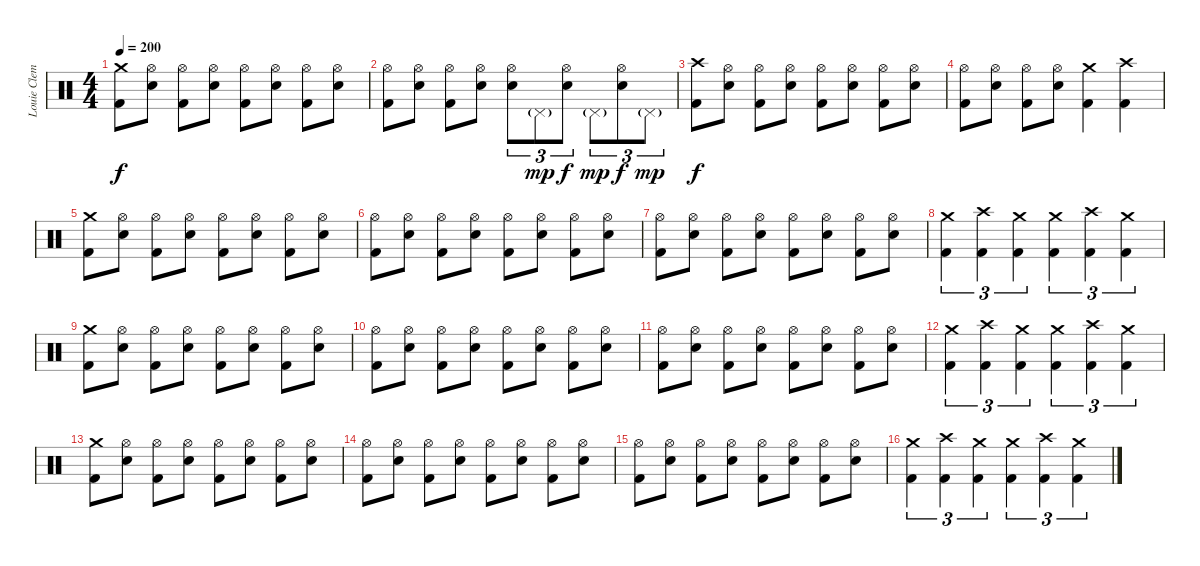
\track ("Louie Clemente" "Louie Clem") {instrument percussion}
\staff {score}
\articulation defaults
\ts (4 4)
\tempo 200
\clef neutral
\ks c
("Crash medium (hit)" "Kick (hit) 2").8{dy f} ("Hi-Hat (open)" "Snare (hit) 2").8 ("Hi-Hat (open)" "Kick (hit) 2").8 ("Hi-Hat (open)" "Snare (hit) 2").8 ("Hi-Hat (open)" "Kick (hit) 2").8 ("Hi-Hat (open)" "Snare (hit) 2").8 ("Hi-Hat (open)" "Kick (hit) 2").8 ("Hi-Hat (open)" "Snare (hit) 2").8 |
("Hi-Hat (open)" "Kick (hit) 2").8 ("Hi-Hat (open)" "Snare (hit) 2").8 ("Hi-Hat (open)" "Kick (hit) 2").8 ("Hi-Hat (open)" "Snare (hit) 2").8 ("Hi-Hat (open)" "Snare (hit) 2").8{tu (3 2)} "Pedal Hi-Hat (hit)"{g}.8{tu (3 2) dy mp} ("Hi-Hat (open)" "Snare (hit) 2").8{tu (3 2) dy f} "Pedal Hi-Hat (hit)"{g}.8{tu (3 2) dy mp} ("Hi-Hat (open)" "Snare (hit) 2").8{tu (3 2) dy f} "Pedal Hi-Hat (hit)"{g}.8{tu (3 2) dy mp} |
("Crash high (hit)" "Kick (hit) 2").8{dy f} ("Hi-Hat (open)" "Snare (hit) 2").8 ("Hi-Hat (open)" "Kick (hit) 2").8 ("Hi-Hat (open)" "Snare (hit) 2").8 ("Hi-Hat (open)" "Kick (hit) 2").8 ("Hi-Hat (open)" "Snare (hit) 2").8 ("Hi-Hat (open)" "Kick (hit) 2").8 ("Hi-Hat (open)" "Snare (hit) 2").8 |
("Hi-Hat (open)" "Kick (hit) 2").8 ("Hi-Hat (open)" "Snare (hit) 2").8 ("Hi-Hat (open)" "Kick (hit) 2").8 ("Hi-Hat (open)" "Snare (hit) 2").8 ("Crash medium (hit)" "Kick (hit) 2").4 ("Crash high (hit)" "Kick (hit) 2").4 |
("Crash medium (hit)" "Kick (hit) 2").8 ("Hi-Hat (open)" "Snare (hit) 2").8 ("Hi-Hat (open)" "Kick (hit) 2").8 ("Hi-Hat (open)" "Snare (hit) 2").8 ("Hi-Hat (open)" "Kick (hit) 2").8 ("Hi-Hat (open)" "Snare (hit) 2").8 ("Hi-Hat (open)" "Kick (hit) 2").8 ("Hi-Hat (open)" "Snare (hit) 2").8 |
("Hi-Hat (open)" "Kick (hit) 2").8 ("Hi-Hat (open)" "Snare (hit) 2").8 ("Hi-Hat (open)" "Kick (hit) 2").8 ("Hi-Hat (open)" "Snare (hit) 2").8 ("Hi-Hat (open)" "Kick (hit) 2").8 ("Hi-Hat (open)" "Snare (hit) 2").8 ("Hi-Hat (open)" "Kick (hit) 2").8 ("Hi-Hat (open)" "Snare (hit) 2").8 |
("Hi-Hat (open)" "Kick (hit) 2").8 ("Hi-Hat (open)" "Snare (hit) 2").8 ("Hi-Hat (open)" "Kick (hit) 2").8 ("Hi-Hat (open)" "Snare (hit) 2").8 ("Hi-Hat (open)" "Kick (hit) 2").8 ("Hi-Hat (open)" "Snare (hit) 2").8 ("Hi-Hat (open)" "Kick (hit) 2").8 ("Hi-Hat (open)" "Snare (hit) 2").8 |
("Crash medium (hit)" "Kick (hit) 2").4{tu (3 2)} ("Crash high (hit)" "Kick (hit) 2").4{tu (3 2)} ("Crash medium (hit)" "Kick (hit) 2").4{tu (3 2)} ("Crash medium (hit)" "Kick (hit) 2").4{tu (3 2)} ("Crash high (hit)" "Kick (hit) 2").4{tu (3 2)} ("Crash medium (hit)" "Kick (hit) 2").4{tu (3 2)} |
("Crash medium (hit)" "Kick (hit) 2").8 ("Hi-Hat (open)" "Snare (hit) 2").8 ("Hi-Hat (open)" "Kick (hit) 2").8 ("Hi-Hat (open)" "Snare (hit) 2").8 ("Hi-Hat (open)" "Kick (hit) 2").8 ("Hi-Hat (open)" "Snare (hit) 2").8 ("Hi-Hat (open)" "Kick (hit) 2").8 ("Hi-Hat (open)" "Snare (hit) 2").8 |
("Hi-Hat (open)" "Kick (hit) 2").8 ("Hi-Hat (open)" "Snare (hit) 2").8 ("Hi-Hat (open)" "Kick (hit) 2").8 ("Hi-Hat (open)" "Snare (hit) 2").8 ("Hi-Hat (open)" "Kick (hit) 2").8 ("Hi-Hat (open)" "Snare (hit) 2").8 ("Hi-Hat (open)" "Kick (hit) 2").8 ("Hi-Hat (open)" "Snare (hit) 2").8 |
("Hi-Hat (open)" "Kick (hit) 2").8 ("Hi-Hat (open)" "Snare (hit) 2").8 ("Hi-Hat (open)" "Kick (hit) 2").8 ("Hi-Hat (open)" "Snare (hit) 2").8 ("Hi-Hat (open)" "Kick (hit) 2").8 ("Hi-Hat (open)" "Snare (hit) 2").8 ("Hi-Hat (open)" "Kick (hit) 2").8 ("Hi-Hat (open)" "Snare (hit) 2").8 |
("Crash medium (hit)" "Kick (hit) 2").4{tu (3 2)} ("Crash high (hit)" "Kick (hit) 2").4{tu (3 2)} ("Crash medium (hit)" "Kick (hit) 2").4{tu (3 2)} ("Crash medium (hit)" "Kick (hit) 2").4{tu (3 2)} ("Crash high (hit)" "Kick (hit) 2").4{tu (3 2)} ("Crash medium (hit)" "Kick (hit) 2").4{tu (3 2)} |
("Crash medium (hit)" "Kick (hit) 2").8 ("Hi-Hat (open)" "Snare (hit) 2").8 ("Hi-Hat (open)" "Kick (hit) 2").8 ("Hi-Hat (open)" "Snare (hit) 2").8 ("Hi-Hat (open)" "Kick (hit) 2").8 ("Hi-Hat (open)" "Snare (hit) 2").8 ("Hi-Hat (open)" "Kick (hit) 2").8 ("Hi-Hat (open)" "Snare (hit) 2").8 |
("Hi-Hat (open)" "Kick (hit) 2").8 ("Hi-Hat (open)" "Snare (hit) 2").8 ("Hi-Hat (open)" "Kick (hit) 2").8 ("Hi-Hat (open)" "Snare (hit) 2").8 ("Hi-Hat (open)" "Kick (hit) 2").8 ("Hi-Hat (open)" "Snare (hit) 2").8 ("Hi-Hat (open)" "Kick (hit) 2").8 ("Hi-Hat (open)" "Snare (hit) 2").8 |
("Hi-Hat (open)" "Kick (hit) 2").8 ("Hi-Hat (open)" "Snare (hit) 2").8 ("Hi-Hat (open)" "Kick (hit) 2").8 ("Hi-Hat (open)" "Snare (hit) 2").8 ("Hi-Hat (open)" "Kick (hit) 2").8 ("Hi-Hat (open)" "Snare (hit) 2").8 ("Hi-Hat (open)" "Kick (hit) 2").8 ("Hi-Hat (open)" "Snare (hit) 2").8 |
("Crash medium (hit)" "Kick (hit) 2").4{tu (3 2)} ("Crash high (hit)" "Kick (hit) 2").4{tu (3 2)} ("Crash medium (hit)" "Kick (hit) 2").4{tu (3 2)} ("Crash medium (hit)" "Kick (hit) 2").4{tu (3 2)} ("Crash high (hit)" "Kick (hit) 2").4{tu (3 2)} ("Crash medium (hit)" "Kick (hit) 2").4{tu (3 2)}
